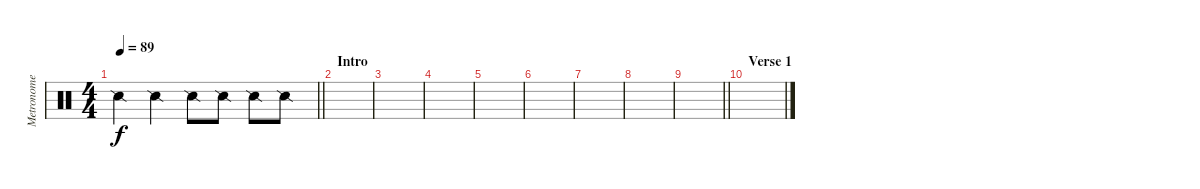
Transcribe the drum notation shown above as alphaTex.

\track ("Metronome" "Metronome") {instrument percussion}
\staff {score}
\articulation defaults
\ts (4 4)
\tempo 89
\clef neutral
\barLineRight lightlight
\ks c "Snare (side stick) 2".4{dy f} "Snare (side stick) 2".4 "Snare (side stick) 2".8 "Snare (side stick) 2".8 "Snare (side stick) 2".8 "Snare (side stick) 2".8
|
\section ("" "Intro")
|
|
|
|
|
|
|
\barLineRight lightlight
|
\section ("" "Verse 1")
